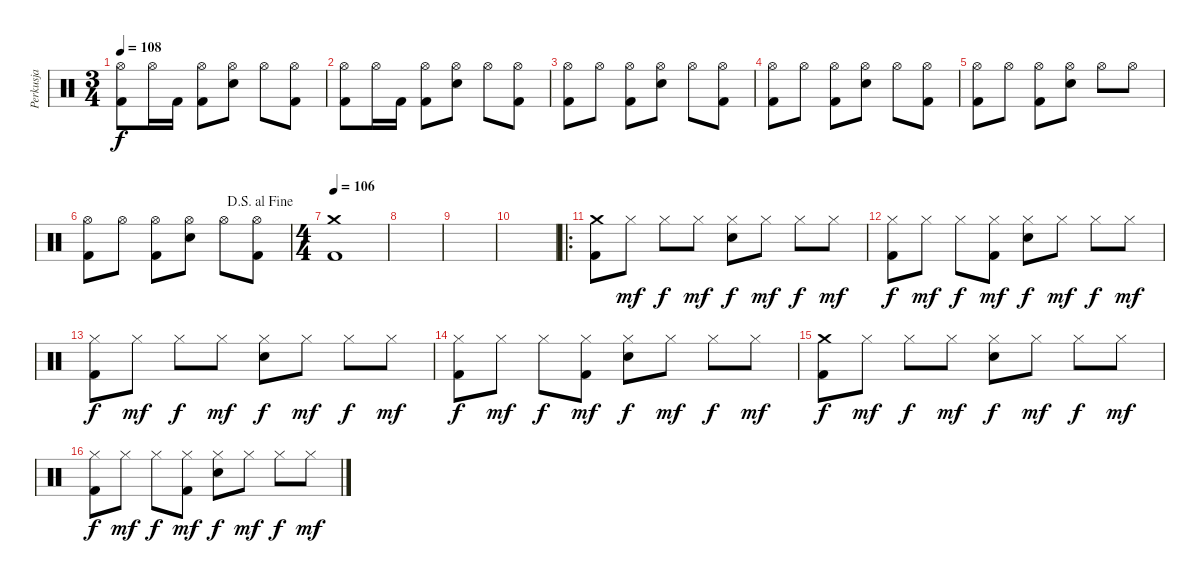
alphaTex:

\track ("Perkusja" "Perkusja") {instrument percussion}
\staff {score}
\articulation defaults
\ts (3 4)
\tempo 108
\clef neutral
\ks c
("Hi-Hat (open)" "Kick (hit) 2").8{dy f} "Hi-Hat (open)".16 "Kick (hit) 2".16 ("Hi-Hat (open)" "Kick (hit) 2").8 ("Hi-Hat (open)" "Electric Snare (hit)").8 "Hi-Hat (open)".8 ("Hi-Hat (open)" "Kick (hit) 2").8 |
("Hi-Hat (open)" "Kick (hit) 2").8 "Hi-Hat (open)".16 "Kick (hit) 2".16 ("Hi-Hat (open)" "Kick (hit) 2").8 ("Hi-Hat (open)" "Electric Snare (hit)").8 "Hi-Hat (open)".8 ("Hi-Hat (open)" "Kick (hit) 2").8 |
("Hi-Hat (open)" "Kick (hit) 2").8 "Hi-Hat (open)".8 ("Hi-Hat (open)" "Kick (hit) 2").8 ("Hi-Hat (open)" "Electric Snare (hit)").8 "Hi-Hat (open)".8 ("Hi-Hat (open)" "Kick (hit) 2").8 |
("Hi-Hat (open)" "Kick (hit) 2").8 "Hi-Hat (open)".8 ("Hi-Hat (open)" "Kick (hit) 2").8 ("Hi-Hat (open)" "Electric Snare (hit)").8 "Hi-Hat (open)".8 ("Hi-Hat (open)" "Kick (hit) 2").8 |
("Hi-Hat (open)" "Kick (hit) 2").8 "Hi-Hat (open)".8 ("Hi-Hat (open)" "Kick (hit) 2").8 ("Hi-Hat (open)" "Electric Snare (hit)").8 "Hi-Hat (open)".8 "Hi-Hat (open)".8 |
\jump dalsegnoalfine
("Hi-Hat (open)" "Kick (hit) 2").8 "Hi-Hat (open)".8 ("Hi-Hat (open)" "Kick (hit) 2").8 ("Hi-Hat (open)" "Electric Snare (hit)").8 "Hi-Hat (open)".8 ("Hi-Hat (open)" "Kick (hit) 2").8 |
\ts (4 4)
\tempo 106
("Crash medium (hit)" "Kick (hit) 2").1 |
|
|
|
\ro
("Crash medium (hit)" "Kick (hit) 2").8 "Hi-Hat (closed)".8{dy mf} "Hi-Hat (closed)".8{dy f} "Hi-Hat (closed)".8{dy mf} ("Hi-Hat (closed)" "Electric Snare (hit)").8{dy f} "Hi-Hat (closed)".8{dy mf} "Hi-Hat (closed)".8{dy f} "Hi-Hat (closed)".8{dy mf} |
("Hi-Hat (closed)" "Kick (hit) 2").8{dy f} "Hi-Hat (closed)".8{dy mf} "Hi-Hat (closed)".8{dy f} ("Hi-Hat (closed)" "Kick (hit) 2").8{dy mf} ("Hi-Hat (closed)" "Electric Snare (hit)").8{dy f} "Hi-Hat (closed)".8{dy mf} "Hi-Hat (closed)".8{dy f} "Hi-Hat (closed)".8{dy mf} |
("Hi-Hat (closed)" "Kick (hit) 2").8{dy f} "Hi-Hat (closed)".8{dy mf} "Hi-Hat (closed)".8{dy f} "Hi-Hat (closed)".8{dy mf} ("Hi-Hat (closed)" "Electric Snare (hit)").8{dy f} "Hi-Hat (closed)".8{dy mf} "Hi-Hat (closed)".8{dy f} "Hi-Hat (closed)".8{dy mf} |
("Hi-Hat (closed)" "Kick (hit) 2").8{dy f} "Hi-Hat (closed)".8{dy mf} "Hi-Hat (closed)".8{dy f} ("Hi-Hat (closed)" "Kick (hit) 2").8{dy mf} ("Hi-Hat (closed)" "Electric Snare (hit)").8{dy f} "Hi-Hat (closed)".8{dy mf} "Hi-Hat (closed)".8{dy f} "Hi-Hat (closed)".8{dy mf} |
("Crash medium (hit)" "Kick (hit) 2").8{dy f} "Hi-Hat (closed)".8{dy mf} "Hi-Hat (closed)".8{dy f} "Hi-Hat (closed)".8{dy mf} ("Hi-Hat (closed)" "Electric Snare (hit)").8{dy f} "Hi-Hat (closed)".8{dy mf} "Hi-Hat (closed)".8{dy f} "Hi-Hat (closed)".8{dy mf} |
("Hi-Hat (closed)" "Kick (hit) 2").8{dy f} "Hi-Hat (closed)".8{dy mf} "Hi-Hat (closed)".8{dy f} ("Hi-Hat (closed)" "Kick (hit) 2").8{dy mf} ("Hi-Hat (closed)" "Electric Snare (hit)").8{dy f} "Hi-Hat (closed)".8{dy mf} "Hi-Hat (closed)".8{dy f} "Hi-Hat (closed)".8{dy mf}
